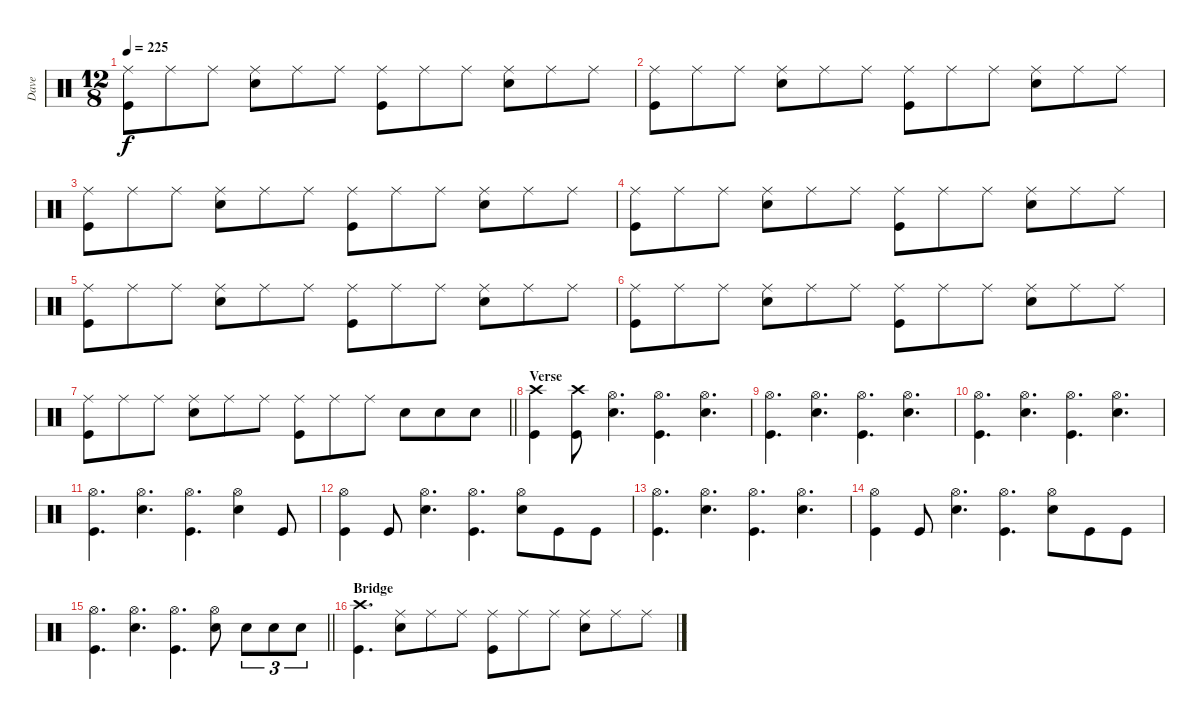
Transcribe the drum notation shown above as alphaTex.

\track ("Dave" "Dave") {instrument percussion}
\staff {score}
\articulation defaults
\ts (12 8)
\tempo 225
\clef neutral
\ks c
("Ride (middle)" "Kick (hit)").8{dy f} "Ride (middle)".8 "Ride (middle)".8 ("Ride (middle)" "Snare (hit) 2").8 "Ride (middle)".8 "Ride (middle)".8 ("Ride (middle)" "Kick (hit)").8 "Ride (middle)".8 "Ride (middle)".8 ("Ride (middle)" "Snare (hit) 2").8 "Ride (middle)".8 "Ride (middle)".8 |
("Ride (middle)" "Kick (hit)").8 "Ride (middle)".8 "Ride (middle)".8 ("Ride (middle)" "Snare (hit) 2").8 "Ride (middle)".8 "Ride (middle)".8 ("Ride (middle)" "Kick (hit)").8 "Ride (middle)".8 "Ride (middle)".8 ("Ride (middle)" "Snare (hit) 2").8 "Ride (middle)".8 "Ride (middle)".8 |
("Ride (middle)" "Kick (hit)").8 "Ride (middle)".8 "Ride (middle)".8 ("Ride (middle)" "Snare (hit) 2").8 "Ride (middle)".8 "Ride (middle)".8 ("Ride (middle)" "Kick (hit)").8 "Ride (middle)".8 "Ride (middle)".8 ("Ride (middle)" "Snare (hit) 2").8 "Ride (middle)".8 "Ride (middle)".8 |
("Ride (middle)" "Kick (hit)").8 "Ride (middle)".8 "Ride (middle)".8 ("Ride (middle)" "Snare (hit) 2").8 "Ride (middle)".8 "Ride (middle)".8 ("Ride (middle)" "Kick (hit)").8 "Ride (middle)".8 "Ride (middle)".8 ("Ride (middle)" "Snare (hit) 2").8 "Ride (middle)".8 "Ride (middle)".8 |
("Ride (middle)" "Kick (hit)").8 "Ride (middle)".8 "Ride (middle)".8 ("Ride (middle)" "Snare (hit) 2").8 "Ride (middle)".8 "Ride (middle)".8 ("Ride (middle)" "Kick (hit)").8 "Ride (middle)".8 "Ride (middle)".8 ("Ride (middle)" "Snare (hit) 2").8 "Ride (middle)".8 "Ride (middle)".8 |
("Ride (middle)" "Kick (hit)").8 "Ride (middle)".8 "Ride (middle)".8 ("Ride (middle)" "Snare (hit) 2").8 "Ride (middle)".8 "Ride (middle)".8 ("Ride (middle)" "Kick (hit)").8 "Ride (middle)".8 "Ride (middle)".8 ("Ride (middle)" "Snare (hit) 2").8 "Ride (middle)".8 "Ride (middle)".8 |
\barLineRight lightlight
("Ride (middle)" "Kick (hit)").8 "Ride (middle)".8 "Ride (middle)".8 ("Ride (middle)" "Snare (hit) 2").8 "Ride (middle)".8 "Ride (middle)".8 ("Ride (middle)" "Kick (hit)").8 "Ride (middle)".8 "Ride (middle)".8 "Snare (hit) 2".8 "Snare (hit) 2".8 "Snare (hit) 2".8 |
\section ("" "Verse")
("Crash high (hit)" "Kick (hit)").4 ("Crash high (hit)" "Kick (hit)").8 ("Hi-Hat (open)" "Snare (hit) 2").4{d} ("Hi-Hat (open)" "Kick (hit)").4{d} ("Hi-Hat (open)" "Snare (hit) 2").4{d} |
("Hi-Hat (open)" "Kick (hit)").4{d} ("Hi-Hat (open)" "Snare (hit) 2").4{d} ("Hi-Hat (open)" "Kick (hit)").4{d} ("Hi-Hat (open)" "Snare (hit) 2").4{d} |
("Hi-Hat (open)" "Kick (hit)").4{d} ("Hi-Hat (open)" "Snare (hit) 2").4{d} ("Hi-Hat (open)" "Kick (hit)").4{d} ("Hi-Hat (open)" "Snare (hit) 2").4{d} |
("Hi-Hat (open)" "Kick (hit)").4{d} ("Hi-Hat (open)" "Snare (hit) 2").4{d} ("Hi-Hat (open)" "Kick (hit)").4{d} ("Hi-Hat (open)" "Snare (hit) 2").4 "Kick (hit)".8 |
("Hi-Hat (open)" "Kick (hit)").4 "Kick (hit)".8 ("Hi-Hat (open)" "Snare (hit) 2").4{d} ("Hi-Hat (open)" "Kick (hit)").4{d} ("Hi-Hat (open)" "Snare (hit) 2").8 "Kick (hit)".8 "Kick (hit)".8 |
("Hi-Hat (open)" "Kick (hit)").4{d} ("Hi-Hat (open)" "Snare (hit) 2").4{d} ("Hi-Hat (open)" "Kick (hit)").4{d} ("Hi-Hat (open)" "Snare (hit) 2").4{d} |
("Hi-Hat (open)" "Kick (hit)").4 "Kick (hit)".8 ("Hi-Hat (open)" "Snare (hit) 2").4{d} ("Hi-Hat (open)" "Kick (hit)").4{d} ("Hi-Hat (open)" "Snare (hit) 2").8 "Kick (hit)".8 "Kick (hit)".8 |
\barLineRight lightlight
("Hi-Hat (open)" "Kick (hit)").4{d} ("Hi-Hat (open)" "Snare (hit) 2").4{d} ("Hi-Hat (open)" "Kick (hit)").4{d} ("Hi-Hat (open)" "Snare (hit) 2").8 "Snare (hit) 2".8{tu (3 2)} "Snare (hit) 2".8{tu (3 2)} "Snare (hit) 2".8{tu (3 2)} |
\section ("" "Bridge")
("Crash high (hit)" "Kick (hit)").4{d} ("Ride (middle)" "Snare (hit) 2").8 "Ride (middle)".8 "Ride (middle)".8 ("Ride (middle)" "Kick (hit)").8 "Ride (middle)".8 "Ride (middle)".8 ("Ride (middle)" "Snare (hit) 2").8 "Ride (middle)".8 "Ride (middle)".8
